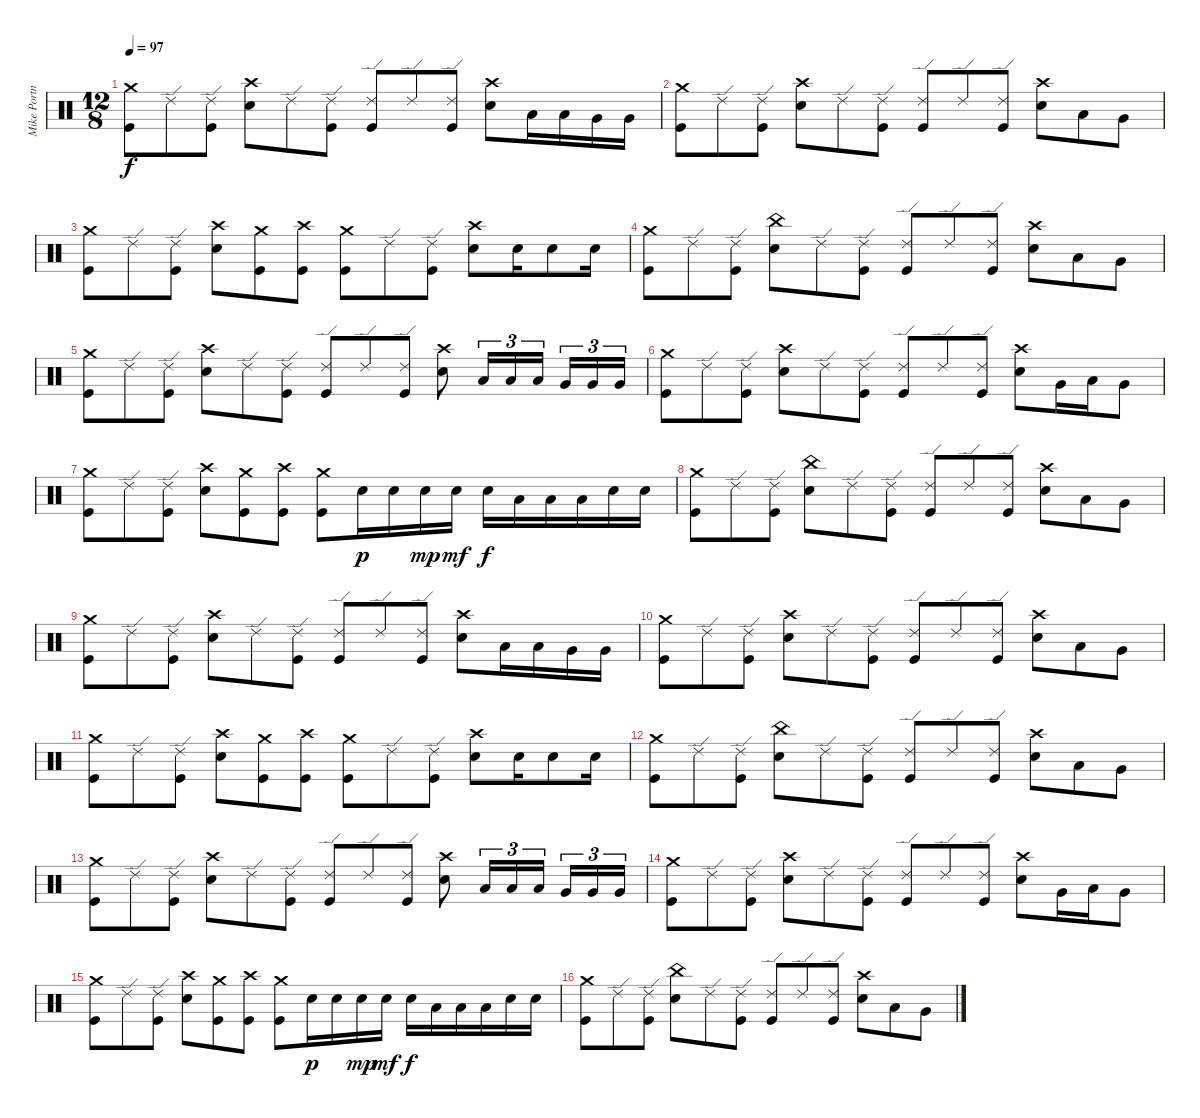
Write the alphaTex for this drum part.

\track ("Mike Portnoy" "Mike Portn") {instrument percussion}
\staff {score}
\articulation defaults
\ts (12 8)
\tempo 97
\clef neutral
\ks c
("Crash medium (hit)" "Kick (hit)").8{dy f} "Ride (edge) 2".8 ("Ride (edge) 2" "Kick (hit)").8 ("Crash high (hit)" "Snare (hit) 2").8 "Ride (edge) 2".8 ("Ride (edge) 2" "Kick (hit)").8 ("Ride (edge) 2" "Kick (hit)").8 "Ride (edge) 2".8 ("Ride (edge) 2" "Kick (hit)").8 ("Crash high (hit)" "Snare (hit) 2").8 "Low Tom (hit)".16 "Low Tom (hit)".16 "Very Low Tom (hit)".16 "Very Low Tom (hit)".16 |
("Crash medium (hit)" "Kick (hit)").8 "Ride (edge) 2".8 ("Ride (edge) 2" "Kick (hit)").8 ("Crash high (hit)" "Snare (hit) 2").8 "Ride (edge) 2".8 ("Ride (edge) 2" "Kick (hit)").8 ("Ride (edge) 2" "Kick (hit)").8 "Ride (edge) 2".8 ("Ride (edge) 2" "Kick (hit)").8 ("Crash high (hit)" "Snare (hit) 2").8 "Low Tom (hit)".8 "Very Low Tom (hit)".8 |
("Crash medium (hit)" "Kick (hit)").8 "Ride (edge) 2".8 ("Ride (edge) 2" "Kick (hit)").8 ("Crash high (hit)" "Snare (hit) 2").8 ("Crash medium (hit)" "Kick (hit)").8 ("Crash high (hit)" "Kick (hit)").8 ("Crash medium (hit)" "Kick (hit)").8 "Ride (edge) 2".8 ("Ride (edge) 2" "Kick (hit)").8 ("Crash high (hit)" "Snare (hit) 2").8 "Snare (hit) 2".16 "Snare (hit) 2".8 "Snare (hit) 2".16 |
("Crash medium (hit)" "Kick (hit)").8 "Ride (edge) 2".8 ("Ride (edge) 2" "Kick (hit)").8 ("China (hit)" "Snare (hit) 2").8 "Ride (edge) 2".8 ("Ride (edge) 2" "Kick (hit)").8 ("Ride (edge) 2" "Kick (hit)").8 "Ride (edge) 2".8 ("Ride (edge) 2" "Kick (hit)").8 ("Crash high (hit)" "Snare (hit) 2").8 "Low Tom (hit)".8 "Very Low Tom (hit)".8 |
("Crash medium (hit)" "Kick (hit)").8 "Ride (edge) 2".8 ("Ride (edge) 2" "Kick (hit)").8 ("Crash high (hit)" "Snare (hit) 2").8 "Ride (edge) 2".8 ("Ride (edge) 2" "Kick (hit)").8 ("Ride (edge) 2" "Kick (hit)").8 "Ride (edge) 2".8 ("Ride (edge) 2" "Kick (hit)").8 ("Crash high (hit)" "Snare (hit) 2").8 "Low Tom (hit)".16{tu (3 2)} "Low Tom (hit)".16{tu (3 2)} "Low Tom (hit)".16{tu (3 2)} "Very Low Tom (hit)".16{tu (3 2)} "Very Low Tom (hit)".16{tu (3 2)} "Very Low Tom (hit)".16{tu (3 2)} |
("Crash medium (hit)" "Kick (hit)").8 "Ride (edge) 2".8 ("Ride (edge) 2" "Kick (hit)").8 ("Crash high (hit)" "Snare (hit) 2").8 "Ride (edge) 2".8 ("Ride (edge) 2" "Kick (hit)").8 ("Ride (edge) 2" "Kick (hit)").8 "Ride (edge) 2".8 ("Ride (edge) 2" "Kick (hit)").8 ("Crash high (hit)" "Snare (hit) 2").8 "Very Low Tom (hit)".16 "Low Tom (hit)".16 "Very Low Tom (hit)".8 |
("Crash medium (hit)" "Kick (hit)").8 "Ride (edge) 2".8 ("Ride (edge) 2" "Kick (hit)").8 ("Crash high (hit)" "Snare (hit) 2").8 ("Crash medium (hit)" "Kick (hit)").8 ("Crash high (hit)" "Kick (hit)").8 ("Crash medium (hit)" "Kick (hit)").8 "Snare (hit) 2".16{dy p} "Snare (hit) 2".16 "Snare (hit) 2".16{dy mp} "Snare (hit) 2".16{dy mf} "Snare (hit) 2".16{dy f} "Low Tom (hit)".16 "Low Tom (hit)".16 "Low Tom (hit)".16 "Snare (hit) 2".16 "Snare (hit) 2".16 |
("Crash medium (hit)" "Kick (hit)").8 "Ride (edge) 2".8 ("Ride (edge) 2" "Kick (hit)").8 ("China (hit)" "Snare (hit) 2").8 "Ride (edge) 2".8 ("Ride (edge) 2" "Kick (hit)").8 ("Ride (edge) 2" "Kick (hit)").8 "Ride (edge) 2".8 ("Ride (edge) 2" "Kick (hit)").8 ("Crash high (hit)" "Snare (hit) 2").8 "Low Tom (hit)".8 "Very Low Tom (hit)".8 |
("Crash medium (hit)" "Kick (hit)").8 "Ride (edge) 2".8 ("Ride (edge) 2" "Kick (hit)").8 ("Crash high (hit)" "Snare (hit) 2").8 "Ride (edge) 2".8 ("Ride (edge) 2" "Kick (hit)").8 ("Ride (edge) 2" "Kick (hit)").8 "Ride (edge) 2".8 ("Ride (edge) 2" "Kick (hit)").8 ("Crash high (hit)" "Snare (hit) 2").8 "Low Tom (hit)".16 "Low Tom (hit)".16 "Very Low Tom (hit)".16 "Very Low Tom (hit)".16 |
("Crash medium (hit)" "Kick (hit)").8 "Ride (edge) 2".8 ("Ride (edge) 2" "Kick (hit)").8 ("Crash high (hit)" "Snare (hit) 2").8 "Ride (edge) 2".8 ("Ride (edge) 2" "Kick (hit)").8 ("Ride (edge) 2" "Kick (hit)").8 "Ride (edge) 2".8 ("Ride (edge) 2" "Kick (hit)").8 ("Crash high (hit)" "Snare (hit) 2").8 "Low Tom (hit)".8 "Very Low Tom (hit)".8 |
("Crash medium (hit)" "Kick (hit)").8 "Ride (edge) 2".8 ("Ride (edge) 2" "Kick (hit)").8 ("Crash high (hit)" "Snare (hit) 2").8 ("Crash medium (hit)" "Kick (hit)").8 ("Crash high (hit)" "Kick (hit)").8 ("Crash medium (hit)" "Kick (hit)").8 "Ride (edge) 2".8 ("Ride (edge) 2" "Kick (hit)").8 ("Crash high (hit)" "Snare (hit) 2").8 "Snare (hit) 2".16 "Snare (hit) 2".8 "Snare (hit) 2".16 |
("Crash medium (hit)" "Kick (hit)").8 "Ride (edge) 2".8 ("Ride (edge) 2" "Kick (hit)").8 ("China (hit)" "Snare (hit) 2").8 "Ride (edge) 2".8 ("Ride (edge) 2" "Kick (hit)").8 ("Ride (edge) 2" "Kick (hit)").8 "Ride (edge) 2".8 ("Ride (edge) 2" "Kick (hit)").8 ("Crash high (hit)" "Snare (hit) 2").8 "Low Tom (hit)".8 "Very Low Tom (hit)".8 |
("Crash medium (hit)" "Kick (hit)").8 "Ride (edge) 2".8 ("Ride (edge) 2" "Kick (hit)").8 ("Crash high (hit)" "Snare (hit) 2").8 "Ride (edge) 2".8 ("Ride (edge) 2" "Kick (hit)").8 ("Ride (edge) 2" "Kick (hit)").8 "Ride (edge) 2".8 ("Ride (edge) 2" "Kick (hit)").8 ("Crash high (hit)" "Snare (hit) 2").8 "Low Tom (hit)".16{tu (3 2)} "Low Tom (hit)".16{tu (3 2)} "Low Tom (hit)".16{tu (3 2)} "Very Low Tom (hit)".16{tu (3 2)} "Very Low Tom (hit)".16{tu (3 2)} "Very Low Tom (hit)".16{tu (3 2)} |
("Crash medium (hit)" "Kick (hit)").8 "Ride (edge) 2".8 ("Ride (edge) 2" "Kick (hit)").8 ("Crash high (hit)" "Snare (hit) 2").8 "Ride (edge) 2".8 ("Ride (edge) 2" "Kick (hit)").8 ("Ride (edge) 2" "Kick (hit)").8 "Ride (edge) 2".8 ("Ride (edge) 2" "Kick (hit)").8 ("Crash high (hit)" "Snare (hit) 2").8 "Very Low Tom (hit)".16 "Low Tom (hit)".16 "Very Low Tom (hit)".8 |
("Crash medium (hit)" "Kick (hit)").8 "Ride (edge) 2".8 ("Ride (edge) 2" "Kick (hit)").8 ("Crash high (hit)" "Snare (hit) 2").8 ("Crash medium (hit)" "Kick (hit)").8 ("Crash high (hit)" "Kick (hit)").8 ("Crash medium (hit)" "Kick (hit)").8 "Snare (hit) 2".16{dy p} "Snare (hit) 2".16 "Snare (hit) 2".16{dy mp} "Snare (hit) 2".16{dy mf} "Snare (hit) 2".16{dy f} "Low Tom (hit)".16 "Low Tom (hit)".16 "Low Tom (hit)".16 "Snare (hit) 2".16 "Snare (hit) 2".16 |
("Crash medium (hit)" "Kick (hit)").8 "Ride (edge) 2".8 ("Ride (edge) 2" "Kick (hit)").8 ("China (hit)" "Snare (hit) 2").8 "Ride (edge) 2".8 ("Ride (edge) 2" "Kick (hit)").8 ("Ride (edge) 2" "Kick (hit)").8 "Ride (edge) 2".8 ("Ride (edge) 2" "Kick (hit)").8 ("Crash high (hit)" "Snare (hit) 2").8 "Low Tom (hit)".8 "Very Low Tom (hit)".8
